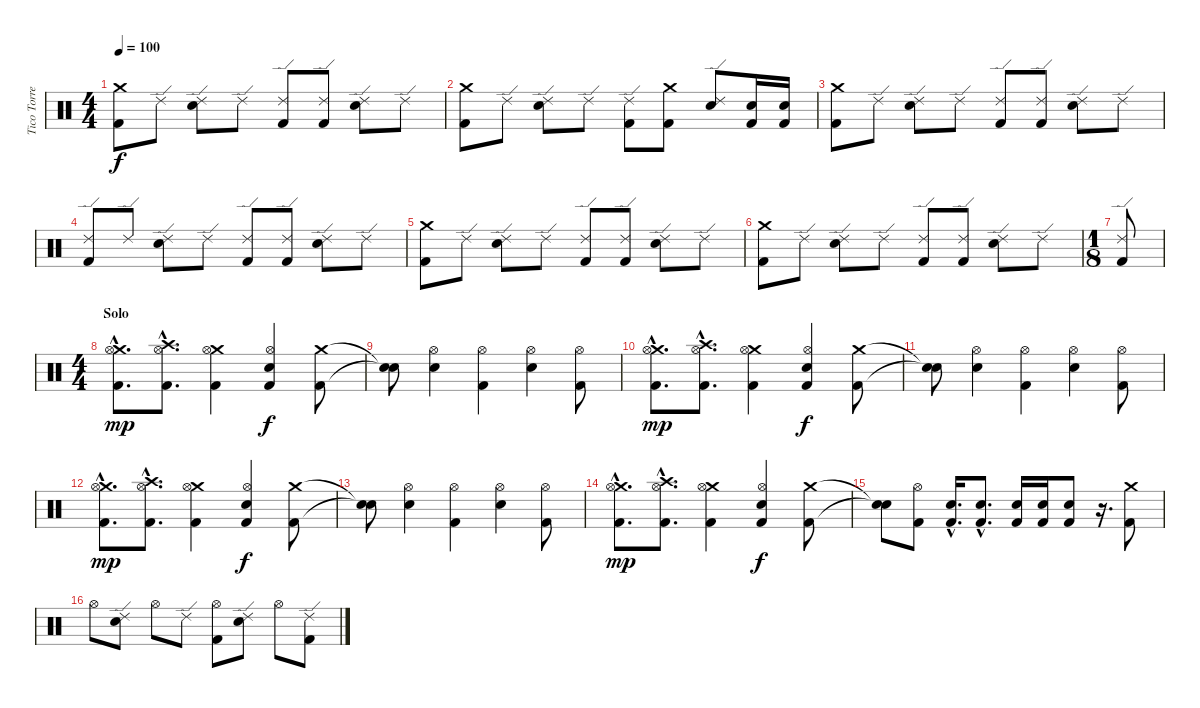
\track ("Tico Torres" "Tico Torre") {instrument percussion}
\staff {score}
\articulation defaults
\ts (4 4)
\tempo 100
\clef neutral
\ks c
("Crash medium (hit)" "Kick (hit) 2").8{dy f} "Ride (edge) 2".8 ("Ride (edge) 2" "Snare (hit) 2").8 "Ride (edge) 2".8 ("Ride (edge) 2" "Kick (hit) 2").8 ("Ride (edge) 2" "Kick (hit) 2").8 ("Ride (edge) 2" "Snare (hit) 2").8 "Ride (edge) 2".8 |
("Crash medium (hit)" "Kick (hit) 2").8 "Ride (edge) 2".8 ("Ride (edge) 2" "Snare (hit) 2").8 "Ride (edge) 2".8 ("Ride (edge) 2" "Kick (hit) 2").8 ("Crash medium (hit)" "Kick (hit) 2").8 ("Ride (edge) 2" "Snare (hit) 2").8 ("Snare (hit) 2" "Kick (hit) 2").16 ("Snare (hit) 2" "Kick (hit) 2").16 |
("Crash medium (hit)" "Kick (hit) 2").8 "Ride (edge) 2".8 ("Ride (edge) 2" "Snare (hit) 2").8 "Ride (edge) 2".8 ("Ride (edge) 2" "Kick (hit) 2").8 ("Ride (edge) 2" "Kick (hit) 2").8 ("Ride (edge) 2" "Snare (hit) 2").8 "Ride (edge) 2".8 |
("Ride (edge) 2" "Kick (hit) 2").8 "Ride (edge) 2".8 ("Ride (edge) 2" "Snare (hit) 2").8 "Ride (edge) 2".8 ("Ride (edge) 2" "Kick (hit) 2").8 ("Ride (edge) 2" "Kick (hit) 2").8 ("Ride (edge) 2" "Snare (hit) 2").8 "Ride (edge) 2".8 |
("Crash medium (hit)" "Kick (hit) 2").8 "Ride (edge) 2".8 ("Ride (edge) 2" "Snare (hit) 2").8 "Ride (edge) 2".8 ("Ride (edge) 2" "Kick (hit) 2").8 ("Ride (edge) 2" "Kick (hit) 2").8 ("Ride (edge) 2" "Snare (hit) 2").8 "Ride (edge) 2".8 |
("Crash medium (hit)" "Kick (hit) 2").8 "Ride (edge) 2".8 ("Ride (edge) 2" "Snare (hit) 2").8 "Ride (edge) 2".8 ("Ride (edge) 2" "Kick (hit) 2").8 ("Ride (edge) 2" "Kick (hit) 2").8 ("Ride (edge) 2" "Snare (hit) 2").8 "Ride (edge) 2".8 |
\ts (1 8)
("Ride (edge) 2" "Kick (hit) 2").8 |
\ts (4 4)
\section ("" "Solo")
("Crash medium (hit)"{hac} "Kick (hit) 2"{hac} "Hi-Hat (open)"{hac}).8{d dy mp} ("Crash high (hit)"{hac} "Kick (hit) 2"{hac} "Hi-Hat (open)"{hac}).8{d} ("Crash medium (hit)" "Kick (hit) 2" "Hi-Hat (open)").4 ("Hi-Hat (open)" "Electric Snare (hit)" "Kick (hit) 2").4{dy f} ("Crash medium (hit)" "Kick (hit) 2").8 |
("Snare (hit)"{t} "Snare (hit)"{t}).8 ("Hi-Hat (open)" "Electric Snare (hit)").4 ("Hi-Hat (open)" "Kick (hit) 2").4 ("Hi-Hat (open)" "Electric Snare (hit)").4 ("Hi-Hat (open)" "Kick (hit) 2").8 |
("Crash medium (hit)"{hac} "Kick (hit) 2"{hac} "Hi-Hat (open)"{hac}).8{d dy mp} ("Crash high (hit)"{hac} "Kick (hit) 2"{hac} "Hi-Hat (open)"{hac}).8{d} ("Crash medium (hit)" "Kick (hit) 2" "Hi-Hat (open)").4 ("Hi-Hat (open)" "Electric Snare (hit)" "Kick (hit) 2").4{dy f} ("Crash medium (hit)" "Kick (hit) 2").8 |
("Snare (hit)"{t} "Snare (hit)"{t}).8 ("Hi-Hat (open)" "Electric Snare (hit)").4 ("Hi-Hat (open)" "Kick (hit) 2").4 ("Hi-Hat (open)" "Electric Snare (hit)").4 ("Hi-Hat (open)" "Kick (hit) 2").8 |
("Crash medium (hit)"{hac} "Kick (hit) 2"{hac} "Hi-Hat (open)"{hac}).8{d dy mp} ("Crash high (hit)"{hac} "Kick (hit) 2"{hac} "Hi-Hat (open)"{hac}).8{d} ("Crash medium (hit)" "Kick (hit) 2" "Hi-Hat (open)").4 ("Hi-Hat (open)" "Electric Snare (hit)" "Kick (hit) 2").4{dy f} ("Crash medium (hit)" "Kick (hit) 2").8 |
("Snare (hit)"{t} "Snare (hit)"{t}).8 ("Hi-Hat (open)" "Electric Snare (hit)").4 ("Hi-Hat (open)" "Kick (hit) 2").4 ("Hi-Hat (open)" "Electric Snare (hit)").4 ("Hi-Hat (open)" "Kick (hit) 2").8 |
("Crash medium (hit)"{hac} "Kick (hit) 2"{hac} "Hi-Hat (open)"{hac}).8{d dy mp} ("Crash high (hit)"{hac} "Kick (hit) 2"{hac} "Hi-Hat (open)"{hac}).8{d} ("Crash medium (hit)" "Kick (hit) 2" "Hi-Hat (open)").4 ("Hi-Hat (open)" "Electric Snare (hit)" "Kick (hit) 2").4{dy f} ("Crash medium (hit)" "Kick (hit) 2").8 |
("Snare (hit)"{t} "Snare (hit)"{t}).8 ("Hi-Hat (open)" "Kick (hit) 2").8 ("Electric Snare (hit)"{hac} "Kick (hit) 2"{hac}).16{d} ("Electric Snare (hit)"{hac} "Kick (hit) 2"{hac}).8{d} ("Electric Snare (hit)" "Kick (hit) 2").16 ("Electric Snare (hit)" "Kick (hit) 2").16 ("Electric Snare (hit)" "Kick (hit) 2").8 r.16{d} ("Crash medium (hit)" "Kick (hit) 2").8 |
"Hi-Hat (open)".8 ("Ride (edge) 2" "Electric Snare (hit)").8 "Hi-Hat (open)".8 "Ride (edge) 2".8 ("Hi-Hat (open)" "Kick (hit) 2").8 ("Ride (edge) 2" "Electric Snare (hit)").8 "Hi-Hat (open)".8 ("Ride (edge) 2" "Kick (hit) 2").8
